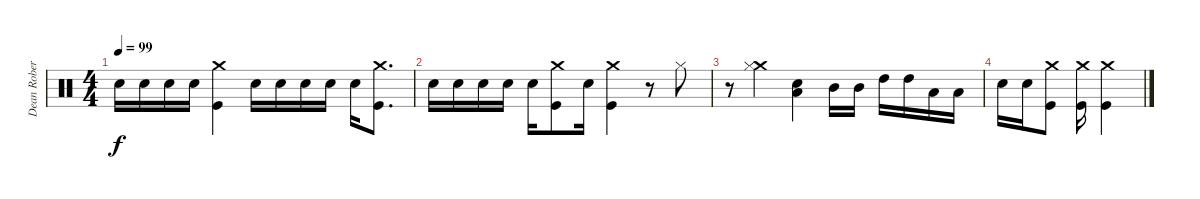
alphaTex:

\track ("Dean Roberts" "Dean Rober") {instrument percussion}
\staff {score}
\articulation defaults
\ts (4 4)
\tempo 99
\clef neutral
\ks c "Electric Snare (hit)".16{dy f} "Electric Snare (hit)".16 "Electric Snare (hit)".16 "Electric Snare (hit)".16
("Crash medium (hit)" "Kick (hit)").4 "Electric Snare (hit)".16 "Electric Snare (hit)".16 "Electric Snare (hit)".16 "Electric Snare (hit)".16 "Electric Snare (hit)".16 ("Crash medium (hit)" "Kick (hit)").8{d} |
"Electric Snare (hit)".16 "Electric Snare (hit)".16 "Electric Snare (hit)".16 "Electric Snare (hit)".16 "Electric Snare (hit)".16 ("Crash medium (hit)" "Kick (hit)").8 "Electric Snare (hit)".16 ("Crash medium (hit)" "Kick (hit)").4 r.8 "Hi-Hat (closed)".8 |
r.8 ("Crash medium (hit)" "Hi-Hat (closed)").4 ("Low Floor Tom (hit)" "Electric Snare (hit)").4 "Mid Tom (hit)".16 "Mid Tom (hit)".16 "High Tom (hit)".16 "High Tom (hit)".16 "Low Floor Tom (hit)".16 "Low Floor Tom (hit)".16 |
"Electric Snare (hit)".16 "Electric Snare (hit)".16 ("Crash medium (hit)" "Kick (hit)").8 ("Crash medium (hit)" "Kick (hit)").16 ("Crash medium (hit)" "Kick (hit)").4
